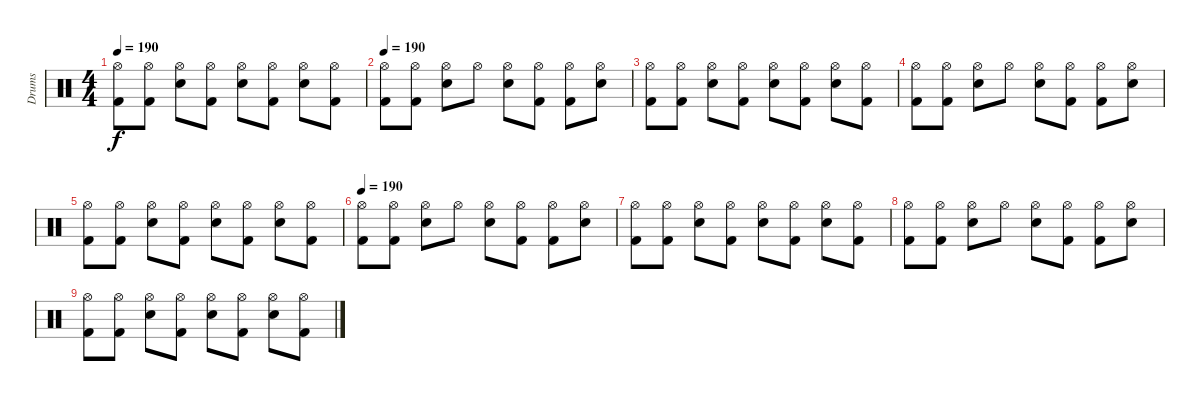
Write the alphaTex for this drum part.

\track ("Drums" "Drums") {instrument percussion}
\staff {score}
\articulation defaults
\ts (4 4)
\tempo 190
\clef neutral
\ks c
("Kick (hit) 2" "Hi-Hat (open)").8{dy f} ("Kick (hit) 2" "Hi-Hat (open)").8 ("Snare (hit) 2" "Hi-Hat (open)").8 ("Kick (hit) 2" "Hi-Hat (open)").8 ("Snare (hit) 2" "Hi-Hat (open)").8 ("Kick (hit) 2" "Hi-Hat (open)").8 ("Snare (hit) 2" "Hi-Hat (open)").8 ("Kick (hit) 2" "Hi-Hat (open)").8 |
\tempo 190
("Kick (hit) 2" "Hi-Hat (open)").8 ("Kick (hit) 2" "Hi-Hat (open)").8 ("Snare (hit) 2" "Hi-Hat (open)").8 "Hi-Hat (open)".8 ("Snare (hit) 2" "Hi-Hat (open)").8 ("Kick (hit) 2" "Hi-Hat (open)").8 ("Kick (hit) 2" "Hi-Hat (open)").8 ("Snare (hit) 2" "Hi-Hat (open)").8 |
("Kick (hit) 2" "Hi-Hat (open)").8 ("Kick (hit) 2" "Hi-Hat (open)").8 ("Snare (hit) 2" "Hi-Hat (open)").8 ("Kick (hit) 2" "Hi-Hat (open)").8 ("Snare (hit) 2" "Hi-Hat (open)").8 ("Kick (hit) 2" "Hi-Hat (open)").8 ("Snare (hit) 2" "Hi-Hat (open)").8 ("Kick (hit) 2" "Hi-Hat (open)").8 |
("Kick (hit) 2" "Hi-Hat (open)").8 ("Kick (hit) 2" "Hi-Hat (open)").8 ("Snare (hit) 2" "Hi-Hat (open)").8 "Hi-Hat (open)".8 ("Snare (hit) 2" "Hi-Hat (open)").8 ("Kick (hit) 2" "Hi-Hat (open)").8 ("Kick (hit) 2" "Hi-Hat (open)").8 ("Snare (hit) 2" "Hi-Hat (open)").8 |
("Kick (hit) 2" "Hi-Hat (open)").8 ("Kick (hit) 2" "Hi-Hat (open)").8 ("Snare (hit) 2" "Hi-Hat (open)").8 ("Kick (hit) 2" "Hi-Hat (open)").8 ("Snare (hit) 2" "Hi-Hat (open)").8 ("Kick (hit) 2" "Hi-Hat (open)").8 ("Snare (hit) 2" "Hi-Hat (open)").8 ("Kick (hit) 2" "Hi-Hat (open)").8 |
\tempo 190
("Kick (hit) 2" "Hi-Hat (open)").8 ("Kick (hit) 2" "Hi-Hat (open)").8 ("Snare (hit) 2" "Hi-Hat (open)").8 "Hi-Hat (open)".8 ("Snare (hit) 2" "Hi-Hat (open)").8 ("Kick (hit) 2" "Hi-Hat (open)").8 ("Kick (hit) 2" "Hi-Hat (open)").8 ("Snare (hit) 2" "Hi-Hat (open)").8 |
("Kick (hit) 2" "Hi-Hat (open)").8 ("Kick (hit) 2" "Hi-Hat (open)").8 ("Snare (hit) 2" "Hi-Hat (open)").8 ("Kick (hit) 2" "Hi-Hat (open)").8 ("Snare (hit) 2" "Hi-Hat (open)").8 ("Kick (hit) 2" "Hi-Hat (open)").8 ("Snare (hit) 2" "Hi-Hat (open)").8 ("Kick (hit) 2" "Hi-Hat (open)").8 |
("Kick (hit) 2" "Hi-Hat (open)").8 ("Kick (hit) 2" "Hi-Hat (open)").8 ("Snare (hit) 2" "Hi-Hat (open)").8 "Hi-Hat (open)".8 ("Snare (hit) 2" "Hi-Hat (open)").8 ("Kick (hit) 2" "Hi-Hat (open)").8 ("Kick (hit) 2" "Hi-Hat (open)").8 ("Snare (hit) 2" "Hi-Hat (open)").8 |
("Kick (hit) 2" "Hi-Hat (open)").8 ("Kick (hit) 2" "Hi-Hat (open)").8 ("Snare (hit) 2" "Hi-Hat (open)").8 ("Kick (hit) 2" "Hi-Hat (open)").8 ("Snare (hit) 2" "Hi-Hat (open)").8 ("Kick (hit) 2" "Hi-Hat (open)").8 ("Snare (hit) 2" "Hi-Hat (open)").8 ("Kick (hit) 2" "Hi-Hat (open)").8
